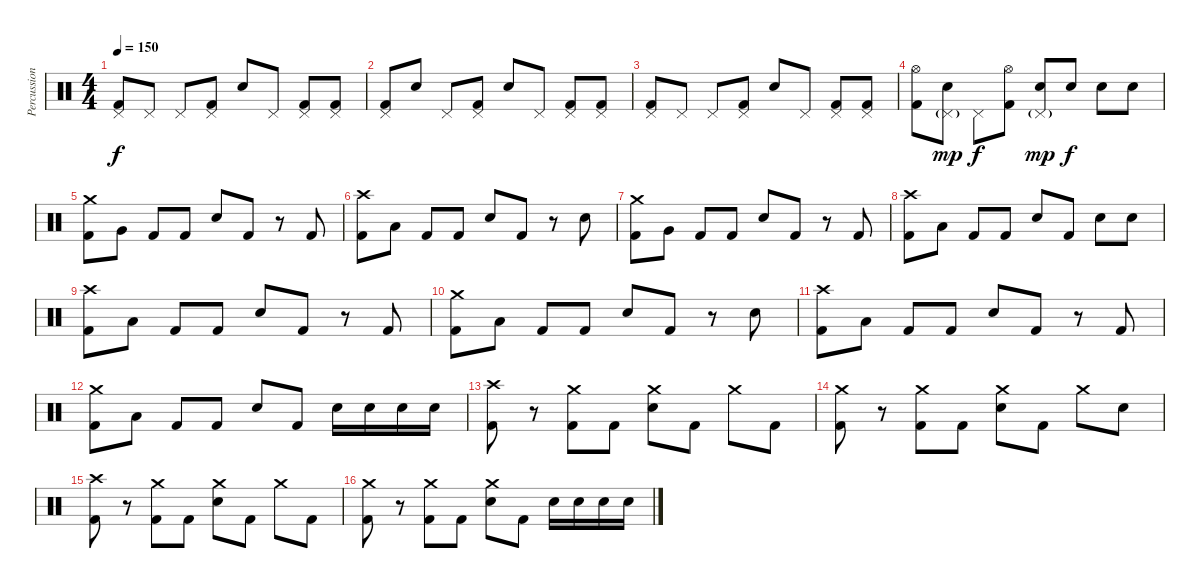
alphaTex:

\track ("Percussion" "Percussion") {instrument percussion}
\staff {score}
\articulation defaults
\ts (4 4)
\tempo 150
\clef neutral
\ks c
("Pedal Hi-Hat (hit)" "Kick (hit) 2").8{dy f} "Pedal Hi-Hat (hit)".8 "Pedal Hi-Hat (hit)".8 ("Pedal Hi-Hat (hit)" "Kick (hit) 2").8 "Snare (hit) 2".8 "Pedal Hi-Hat (hit)".8 ("Pedal Hi-Hat (hit)" "Kick (hit) 2").8 ("Pedal Hi-Hat (hit)" "Kick (hit) 2").8 |
("Pedal Hi-Hat (hit)" "Kick (hit) 2").8 "Snare (hit) 2".8 "Pedal Hi-Hat (hit)".8 ("Pedal Hi-Hat (hit)" "Kick (hit) 2").8 "Snare (hit) 2".8 "Pedal Hi-Hat (hit)".8 ("Pedal Hi-Hat (hit)" "Kick (hit) 2").8 ("Pedal Hi-Hat (hit)" "Kick (hit) 2").8 |
("Pedal Hi-Hat (hit)" "Kick (hit) 2").8 "Pedal Hi-Hat (hit)".8 "Pedal Hi-Hat (hit)".8 ("Pedal Hi-Hat (hit)" "Kick (hit) 2").8 "Snare (hit) 2".8 "Pedal Hi-Hat (hit)".8 ("Pedal Hi-Hat (hit)" "Kick (hit) 2").8 ("Pedal Hi-Hat (hit)" "Kick (hit) 2").8 |
("Hi-Hat (open)" "Kick (hit) 2").8 ("Pedal Hi-Hat (hit)"{g} "Snare (hit) 2").8{dy mp} "Pedal Hi-Hat (hit)".8{dy f} ("Hi-Hat (open)" "Kick (hit) 2").8 ("Pedal Hi-Hat (hit)"{g} "Snare (hit) 2").8{dy mp} "Snare (hit) 2".8{dy f} "Snare (hit) 2".8 "Snare (hit) 2".8 |
("Crash medium (hit)" "Kick (hit) 2").8 "Very Low Tom (hit)".8 "Kick (hit) 2".8 "Kick (hit) 2".8 "Snare (hit) 2".8 "Kick (hit) 2".8 r.8 "Kick (hit) 2".8 |
("Crash high (hit)" "Kick (hit) 2").8 "Low Floor Tom (hit)".8 "Kick (hit) 2".8 "Kick (hit) 2".8 "Snare (hit) 2".8 "Kick (hit) 2".8 r.8 "Snare (hit) 2".8 |
("Crash medium (hit)" "Kick (hit) 2").8 "Very Low Tom (hit)".8 "Kick (hit) 2".8 "Kick (hit) 2".8 "Snare (hit) 2".8 "Kick (hit) 2".8 r.8 "Kick (hit) 2".8 |
("Crash high (hit)" "Kick (hit) 2").8 "Low Floor Tom (hit)".8 "Kick (hit) 2".8 "Kick (hit) 2".8 "Snare (hit) 2".8 "Kick (hit) 2".8 "Snare (hit) 2".8 "Snare (hit) 2".8 |
("Crash high (hit)" "Kick (hit) 2").8 "Low Tom (hit)".8 "Kick (hit) 2".8 "Kick (hit) 2".8 "Snare (hit) 2".8 "Kick (hit) 2".8 r.8 "Kick (hit) 2".8 |
("Crash medium (hit)" "Kick (hit) 2").8 "Low Floor Tom (hit)".8 "Kick (hit) 2".8 "Kick (hit) 2".8 "Snare (hit) 2".8 "Kick (hit) 2".8 r.8 "Snare (hit) 2".8 |
("Crash high (hit)" "Kick (hit) 2").8 "Low Tom (hit)".8 "Kick (hit) 2".8 "Kick (hit) 2".8 "Snare (hit) 2".8 "Kick (hit) 2".8 r.8 "Kick (hit) 2".8 |
("Crash medium (hit)" "Kick (hit) 2").8 "Low Floor Tom (hit)".8 "Kick (hit) 2".8 "Kick (hit) 2".8 "Snare (hit) 2".8 "Kick (hit) 2".8 "Snare (hit) 2".16 "Snare (hit) 2".16 "Snare (hit) 2".16 "Snare (hit) 2".16 |
("Crash high (hit)" "Kick (hit) 2").8 r.8 ("Crash medium (hit)" "Kick (hit) 2").8 "Kick (hit) 2".8 ("Crash medium (hit)" "Snare (hit) 2").8 "Kick (hit) 2".8 "Crash medium (hit)".8 "Kick (hit) 2".8 |
("Crash medium (hit)" "Kick (hit) 2").8 r.8 ("Crash medium (hit)" "Kick (hit) 2").8 "Kick (hit) 2".8 ("Crash medium (hit)" "Snare (hit) 2").8 "Kick (hit) 2".8 "Crash medium (hit)".8 "Snare (hit) 2".8 |
("Crash high (hit)" "Kick (hit) 2").8 r.8 ("Crash medium (hit)" "Kick (hit) 2").8 "Kick (hit) 2".8 ("Crash medium (hit)" "Snare (hit) 2").8 "Kick (hit) 2".8 "Crash medium (hit)".8 "Kick (hit) 2".8 |
("Crash medium (hit)" "Kick (hit) 2").8 r.8 ("Crash medium (hit)" "Kick (hit) 2").8 "Kick (hit) 2".8 ("Crash medium (hit)" "Snare (hit) 2").8 "Kick (hit) 2".8 "Snare (hit) 2".16 "Snare (hit) 2".16 "Snare (hit) 2".16 "Snare (hit) 2".16
